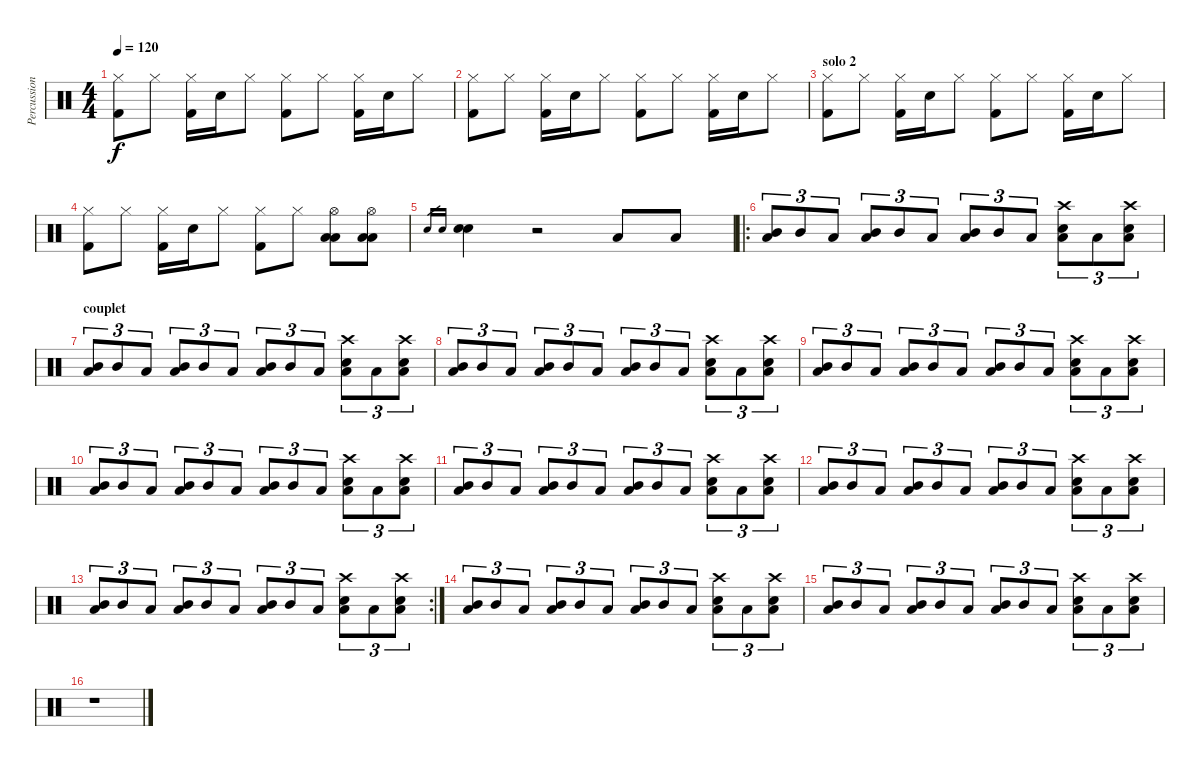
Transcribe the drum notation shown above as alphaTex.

\track ("Percussions" "Percussion") {instrument percussion}
\staff {score}
\articulation defaults
\ts (4 4)
\tempo 120
\clef neutral
\ks c
("Hi-Hat (closed)" "Kick (hit) 2").8{dy f} "Hi-Hat (closed)".8 ("Hi-Hat (closed)" "Kick (hit) 2").16 "Snare (hit) 2".16 "Hi-Hat (closed)".8 ("Hi-Hat (closed)" "Kick (hit) 2").8 "Hi-Hat (closed)".8 ("Hi-Hat (closed)" "Kick (hit) 2").16 "Snare (hit) 2".16 "Hi-Hat (closed)".8 |
("Hi-Hat (closed)" "Kick (hit) 2").8 "Hi-Hat (closed)".8 ("Hi-Hat (closed)" "Kick (hit) 2").16 "Snare (hit) 2".16 "Hi-Hat (closed)".8 ("Hi-Hat (closed)" "Kick (hit) 2").8 "Hi-Hat (closed)".8 ("Hi-Hat (closed)" "Kick (hit) 2").16 "Snare (hit) 2".16 "Hi-Hat (closed)".8 |
\section ("" "solo 2")
("Hi-Hat (closed)" "Kick (hit) 2").8 "Hi-Hat (closed)".8 ("Hi-Hat (closed)" "Kick (hit) 2").16 "Snare (hit) 2".16 "Hi-Hat (closed)".8 ("Hi-Hat (closed)" "Kick (hit) 2").8 "Hi-Hat (closed)".8 ("Hi-Hat (closed)" "Kick (hit) 2").16 "Snare (hit) 2".16 "Hi-Hat (closed)".8 |
("Hi-Hat (closed)" "Kick (hit) 2").8 "Hi-Hat (closed)".8 ("Hi-Hat (closed)" "Kick (hit) 2").16 "Snare (hit) 2".16 "Hi-Hat (closed)".8 ("Hi-Hat (closed)" "Kick (hit) 2").8 "Hi-Hat (closed)".8 ("Hi-Hat (open)" "Low Tom (hit)" "Low Floor Tom (hit)").8 ("Hi-Hat (open)" "Low Tom (hit)" "Low Floor Tom (hit)").8 |
"Snare (hit) 2".16{gr} "Snare (hit) 2".16{gr} ("Snare (hit) 2" "Snare (hit) 2").4 r.2 "Low Floor Tom (hit)".8 "Low Floor Tom (hit)".8 |
\ro
("Mid Tom (hit)" "Low Floor Tom (hit)").8{tu (3 2)} "Mid Tom (hit)".8{tu (3 2)} "Low Tom (hit)".8{tu (3 2)} ("Mid Tom (hit)" "Low Floor Tom (hit)").8{tu (3 2)} "Mid Tom (hit)".8{tu (3 2)} "Low Tom (hit)".8{tu (3 2)} ("Mid Tom (hit)" "Low Floor Tom (hit)").8{tu (3 2)} "Mid Tom (hit)".8{tu (3 2)} "Low Tom (hit)".8{tu (3 2)} ("Crash high (hit)" "Snare (hit) 2" "Low Floor Tom (hit)").8{tu (3 2)} "Low Floor Tom (hit)".8{tu (3 2)} ("Crash high (hit)" "Snare (hit) 2" "Low Floor Tom (hit)").8{tu (3 2)} |
\section ("" "couplet")
("Mid Tom (hit)" "Low Floor Tom (hit)").8{tu (3 2)} "Mid Tom (hit)".8{tu (3 2)} "Low Tom (hit)".8{tu (3 2)} ("Mid Tom (hit)" "Low Floor Tom (hit)").8{tu (3 2)} "Mid Tom (hit)".8{tu (3 2)} "Low Tom (hit)".8{tu (3 2)} ("Mid Tom (hit)" "Low Floor Tom (hit)").8{tu (3 2)} "Mid Tom (hit)".8{tu (3 2)} "Low Tom (hit)".8{tu (3 2)} ("Crash high (hit)" "Snare (hit) 2" "Low Floor Tom (hit)").8{tu (3 2)} "Low Floor Tom (hit)".8{tu (3 2)} ("Crash high (hit)" "Snare (hit) 2" "Low Floor Tom (hit)").8{tu (3 2)} |
("Mid Tom (hit)" "Low Floor Tom (hit)").8{tu (3 2)} "Mid Tom (hit)".8{tu (3 2)} "Low Tom (hit)".8{tu (3 2)} ("Mid Tom (hit)" "Low Floor Tom (hit)").8{tu (3 2)} "Mid Tom (hit)".8{tu (3 2)} "Low Tom (hit)".8{tu (3 2)} ("Mid Tom (hit)" "Low Floor Tom (hit)").8{tu (3 2)} "Mid Tom (hit)".8{tu (3 2)} "Low Tom (hit)".8{tu (3 2)} ("Crash high (hit)" "Snare (hit) 2" "Low Floor Tom (hit)").8{tu (3 2)} "Low Floor Tom (hit)".8{tu (3 2)} ("Crash high (hit)" "Snare (hit) 2" "Low Floor Tom (hit)").8{tu (3 2)} |
("Mid Tom (hit)" "Low Floor Tom (hit)").8{tu (3 2)} "Mid Tom (hit)".8{tu (3 2)} "Low Tom (hit)".8{tu (3 2)} ("Mid Tom (hit)" "Low Floor Tom (hit)").8{tu (3 2)} "Mid Tom (hit)".8{tu (3 2)} "Low Tom (hit)".8{tu (3 2)} ("Mid Tom (hit)" "Low Floor Tom (hit)").8{tu (3 2)} "Mid Tom (hit)".8{tu (3 2)} "Low Tom (hit)".8{tu (3 2)} ("Crash high (hit)" "Snare (hit) 2" "Low Floor Tom (hit)").8{tu (3 2)} "Low Floor Tom (hit)".8{tu (3 2)} ("Crash high (hit)" "Snare (hit) 2" "Low Floor Tom (hit)").8{tu (3 2)} |
("Mid Tom (hit)" "Low Floor Tom (hit)").8{tu (3 2)} "Mid Tom (hit)".8{tu (3 2)} "Low Tom (hit)".8{tu (3 2)} ("Mid Tom (hit)" "Low Floor Tom (hit)").8{tu (3 2)} "Mid Tom (hit)".8{tu (3 2)} "Low Tom (hit)".8{tu (3 2)} ("Mid Tom (hit)" "Low Floor Tom (hit)").8{tu (3 2)} "Mid Tom (hit)".8{tu (3 2)} "Low Tom (hit)".8{tu (3 2)} ("Crash high (hit)" "Snare (hit) 2" "Low Floor Tom (hit)").8{tu (3 2)} "Low Floor Tom (hit)".8{tu (3 2)} ("Crash high (hit)" "Snare (hit) 2" "Low Floor Tom (hit)").8{tu (3 2)} |
("Mid Tom (hit)" "Low Floor Tom (hit)").8{tu (3 2)} "Mid Tom (hit)".8{tu (3 2)} "Low Tom (hit)".8{tu (3 2)} ("Mid Tom (hit)" "Low Floor Tom (hit)").8{tu (3 2)} "Mid Tom (hit)".8{tu (3 2)} "Low Tom (hit)".8{tu (3 2)} ("Mid Tom (hit)" "Low Floor Tom (hit)").8{tu (3 2)} "Mid Tom (hit)".8{tu (3 2)} "Low Tom (hit)".8{tu (3 2)} ("Crash high (hit)" "Snare (hit) 2" "Low Floor Tom (hit)").8{tu (3 2)} "Low Floor Tom (hit)".8{tu (3 2)} ("Crash high (hit)" "Snare (hit) 2" "Low Floor Tom (hit)").8{tu (3 2)} |
("Mid Tom (hit)" "Low Floor Tom (hit)").8{tu (3 2)} "Mid Tom (hit)".8{tu (3 2)} "Low Tom (hit)".8{tu (3 2)} ("Mid Tom (hit)" "Low Floor Tom (hit)").8{tu (3 2)} "Mid Tom (hit)".8{tu (3 2)} "Low Tom (hit)".8{tu (3 2)} ("Mid Tom (hit)" "Low Floor Tom (hit)").8{tu (3 2)} "Mid Tom (hit)".8{tu (3 2)} "Low Tom (hit)".8{tu (3 2)} ("Crash high (hit)" "Snare (hit) 2" "Low Floor Tom (hit)").8{tu (3 2)} "Low Floor Tom (hit)".8{tu (3 2)} ("Crash high (hit)" "Snare (hit) 2" "Low Floor Tom (hit)").8{tu (3 2)} |
\rc 2
("Mid Tom (hit)" "Low Floor Tom (hit)").8{tu (3 2)} "Mid Tom (hit)".8{tu (3 2)} "Low Tom (hit)".8{tu (3 2)} ("Mid Tom (hit)" "Low Floor Tom (hit)").8{tu (3 2)} "Mid Tom (hit)".8{tu (3 2)} "Low Tom (hit)".8{tu (3 2)} ("Mid Tom (hit)" "Low Floor Tom (hit)").8{tu (3 2)} "Mid Tom (hit)".8{tu (3 2)} "Low Tom (hit)".8{tu (3 2)} ("Crash high (hit)" "Snare (hit) 2" "Low Floor Tom (hit)").8{tu (3 2)} "Low Floor Tom (hit)".8{tu (3 2)} ("Crash high (hit)" "Snare (hit) 2" "Low Floor Tom (hit)").8{tu (3 2)} |
("Mid Tom (hit)" "Low Floor Tom (hit)").8{tu (3 2)} "Mid Tom (hit)".8{tu (3 2)} "Low Tom (hit)".8{tu (3 2)} ("Mid Tom (hit)" "Low Floor Tom (hit)").8{tu (3 2)} "Mid Tom (hit)".8{tu (3 2)} "Low Tom (hit)".8{tu (3 2)} ("Mid Tom (hit)" "Low Floor Tom (hit)").8{tu (3 2)} "Mid Tom (hit)".8{tu (3 2)} "Low Tom (hit)".8{tu (3 2)} ("Crash high (hit)" "Snare (hit) 2" "Low Floor Tom (hit)").8{tu (3 2)} "Low Floor Tom (hit)".8{tu (3 2)} ("Crash high (hit)" "Snare (hit) 2" "Low Floor Tom (hit)").8{tu (3 2)} |
("Mid Tom (hit)" "Low Floor Tom (hit)").8{tu (3 2)} "Mid Tom (hit)".8{tu (3 2)} "Low Tom (hit)".8{tu (3 2)} ("Mid Tom (hit)" "Low Floor Tom (hit)").8{tu (3 2)} "Mid Tom (hit)".8{tu (3 2)} "Low Tom (hit)".8{tu (3 2)} ("Mid Tom (hit)" "Low Floor Tom (hit)").8{tu (3 2)} "Mid Tom (hit)".8{tu (3 2)} "Low Tom (hit)".8{tu (3 2)} ("Crash high (hit)" "Snare (hit) 2" "Low Floor Tom (hit)").8{tu (3 2)} "Low Floor Tom (hit)".8{tu (3 2)} ("Crash high (hit)" "Snare (hit) 2" "Low Floor Tom (hit)").8{tu (3 2)} |
r.1
